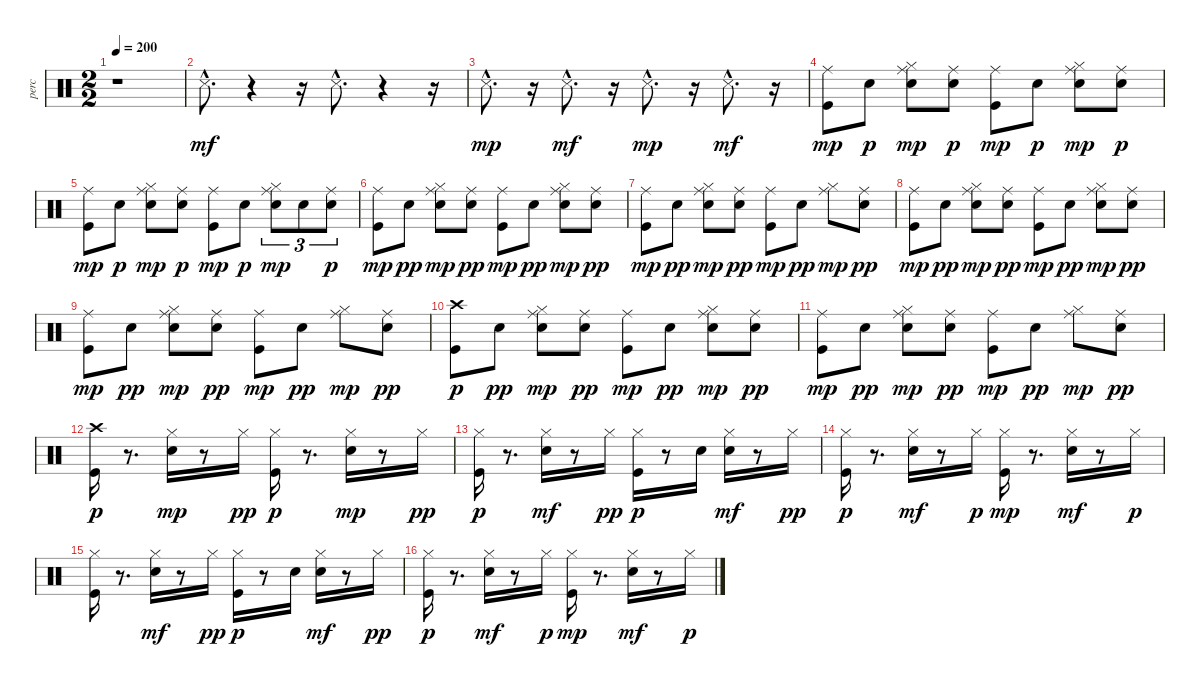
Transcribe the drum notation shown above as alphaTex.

\track ("perc" "perc") {instrument percussion}
\staff {score}
\articulation defaults
\ts (2 2)
\tempo 200
\clef neutral
\ks c
r.1{dy mf volume 12} |
"Snare (side stick) 3"{hac}.8{d} r.4 r.16 "Snare (side stick) 3"{hac}.8{d} r.4 r.16 |
"Snare (side stick) 3"{hac}.8{d dy mp} r.16 "Snare (side stick) 3"{hac}.8{d dy mf} r.16 "Snare (side stick) 3"{hac}.8{d dy mp} r.16 "Snare (side stick) 3"{hac}.8{d dy mf} r.16 |
("Kick (hit)" "Ride (middle)").8{dy mp} "Snare (hit) 2".8{dy p} ("Snare (hit) 2" "Hi-Hat (closed)" "Ride (middle)").8{dy mp} ("Snare (hit) 2" "Ride (middle)").8{dy p} ("Kick (hit)" "Ride (middle)").8{dy mp} "Snare (hit) 2".8{dy p} ("Snare (hit) 2" "Hi-Hat (closed)" "Ride (middle)").8{dy mp} ("Snare (hit) 2" "Ride (middle)").8{dy p} |
("Kick (hit)" "Ride (middle)").8{dy mp} "Snare (hit) 2".8{dy p} ("Snare (hit) 2" "Hi-Hat (closed)" "Ride (middle)").8{dy mp} ("Snare (hit) 2" "Ride (middle)").8{dy p} ("Kick (hit)" "Ride (middle)").8{dy mp} "Snare (hit) 2".8{dy p} ("Snare (hit) 2" "Hi-Hat (closed)" "Ride (middle)").8{tu (3 2) dy mp} "Snare (hit) 2".8{tu (3 2)} ("Snare (hit) 2" "Ride (middle)").8{tu (3 2) dy p} |
("Kick (hit)" "Ride (middle)").8{dy mp} "Snare (hit) 2".8{dy pp} ("Snare (hit) 2" "Hi-Hat (closed)" "Ride (middle)").8{dy mp} ("Snare (hit) 2" "Ride (middle)").8{dy pp} ("Kick (hit)" "Ride (middle)").8{dy mp} "Snare (hit) 2".8{dy pp} ("Snare (hit) 2" "Hi-Hat (closed)" "Ride (middle)").8{dy mp} ("Snare (hit) 2" "Ride (middle)").8{dy pp} |
("Kick (hit)" "Ride (middle)").8{dy mp} "Snare (hit) 2".8{dy pp} ("Snare (hit) 2" "Hi-Hat (closed)" "Ride (middle)").8{dy mp} ("Snare (hit) 2" "Ride (middle)").8{dy pp} ("Kick (hit)" "Ride (middle)").8{dy mp} "Snare (hit) 2".8{dy pp} ("Hi-Hat (closed)" "Ride (middle)").8{dy mp} ("Snare (hit) 2" "Ride (middle)").8{dy pp} |
("Kick (hit)" "Ride (middle)").8{dy mp} "Snare (hit) 2".8{dy pp} ("Snare (hit) 2" "Hi-Hat (closed)" "Ride (middle)").8{dy mp} ("Snare (hit) 2" "Ride (middle)").8{dy pp} ("Kick (hit)" "Ride (middle)").8{dy mp} "Snare (hit) 2".8{dy pp} ("Snare (hit) 2" "Hi-Hat (closed)" "Ride (middle)").8{dy mp} ("Snare (hit) 2" "Ride (middle)").8{dy pp} |
("Kick (hit)" "Ride (middle)").8{dy mp} "Snare (hit) 2".8{dy pp} ("Snare (hit) 2" "Hi-Hat (closed)" "Ride (middle)").8{dy mp} ("Snare (hit) 2" "Ride (middle)").8{dy pp} ("Kick (hit)" "Ride (middle)").8{dy mp} "Snare (hit) 2".8{dy pp} ("Hi-Hat (closed)" "Ride (middle)").8{dy mp} ("Snare (hit) 2" "Ride (middle)").8{dy pp} |
("Kick (hit)" "Crash high (hit)").8{dy p} "Snare (hit) 2".8{dy pp} ("Snare (hit) 2" "Hi-Hat (closed)" "Ride (middle)").8{dy mp} ("Snare (hit) 2" "Ride (middle)").8{dy pp} ("Kick (hit)" "Ride (middle)").8{dy mp} "Snare (hit) 2".8{dy pp} ("Snare (hit) 2" "Hi-Hat (closed)" "Ride (middle)").8{dy mp} ("Snare (hit) 2" "Ride (middle)").8{dy pp} |
("Kick (hit)" "Ride (middle)").8{dy mp} "Snare (hit) 2".8{dy pp} ("Snare (hit) 2" "Hi-Hat (closed)" "Ride (middle)").8{dy mp} ("Snare (hit) 2" "Ride (middle)").8{dy pp} ("Kick (hit)" "Ride (middle)").8{dy mp} "Snare (hit) 2".8{dy pp} ("Hi-Hat (closed)" "Ride (middle)").8{dy mp} ("Snare (hit) 2" "Ride (middle)").8{dy pp} |
("Kick (hit)" "Crash high (hit)").16{dy p} r.8{d} ("Snare (hit) 2" "Hi-Hat (closed)").16{dy mp} r.8 "Hi-Hat (closed)".16{dy pp} ("Kick (hit)" "Hi-Hat (closed)").16{dy p} r.8{d} ("Snare (hit) 2" "Hi-Hat (closed)").16{dy mp} r.8 "Hi-Hat (closed)".16{dy pp} |
("Kick (hit)" "Hi-Hat (closed)").16{dy p} r.8{d} ("Snare (hit) 2" "Hi-Hat (closed)").16{dy mf} r.8 "Hi-Hat (closed)".16{dy pp} ("Kick (hit)" "Hi-Hat (closed)").16{dy p} r.8 "Snare (hit) 2".16 ("Snare (hit) 2" "Hi-Hat (closed)").16{dy mf} r.8 "Hi-Hat (closed)".16{dy pp} |
("Kick (hit)" "Hi-Hat (closed)").16{dy p} r.8{d} ("Snare (hit) 2" "Hi-Hat (closed)").16{dy mf} r.8 "Hi-Hat (closed)".16{dy p} ("Kick (hit)" "Hi-Hat (closed)").16{dy mp} r.8{d} ("Snare (hit) 2" "Hi-Hat (closed)").16{dy mf} r.8 "Hi-Hat (closed)".16{dy p} |
("Kick (hit)" "Hi-Hat (closed)").16 r.8{d} ("Snare (hit) 2" "Hi-Hat (closed)").16{dy mf} r.8 "Hi-Hat (closed)".16{dy pp} ("Kick (hit)" "Hi-Hat (closed)").16{dy p} r.8 "Snare (hit) 2".16 ("Snare (hit) 2" "Hi-Hat (closed)").16{dy mf} r.8 "Hi-Hat (closed)".16{dy pp} |
("Kick (hit)" "Hi-Hat (closed)").16{dy p} r.8{d} ("Snare (hit) 2" "Hi-Hat (closed)").16{dy mf} r.8 "Hi-Hat (closed)".16{dy p} ("Kick (hit)" "Hi-Hat (closed)").16{dy mp} r.8{d} ("Snare (hit) 2" "Hi-Hat (closed)").16{dy mf} r.8 "Hi-Hat (closed)".16{dy p}
